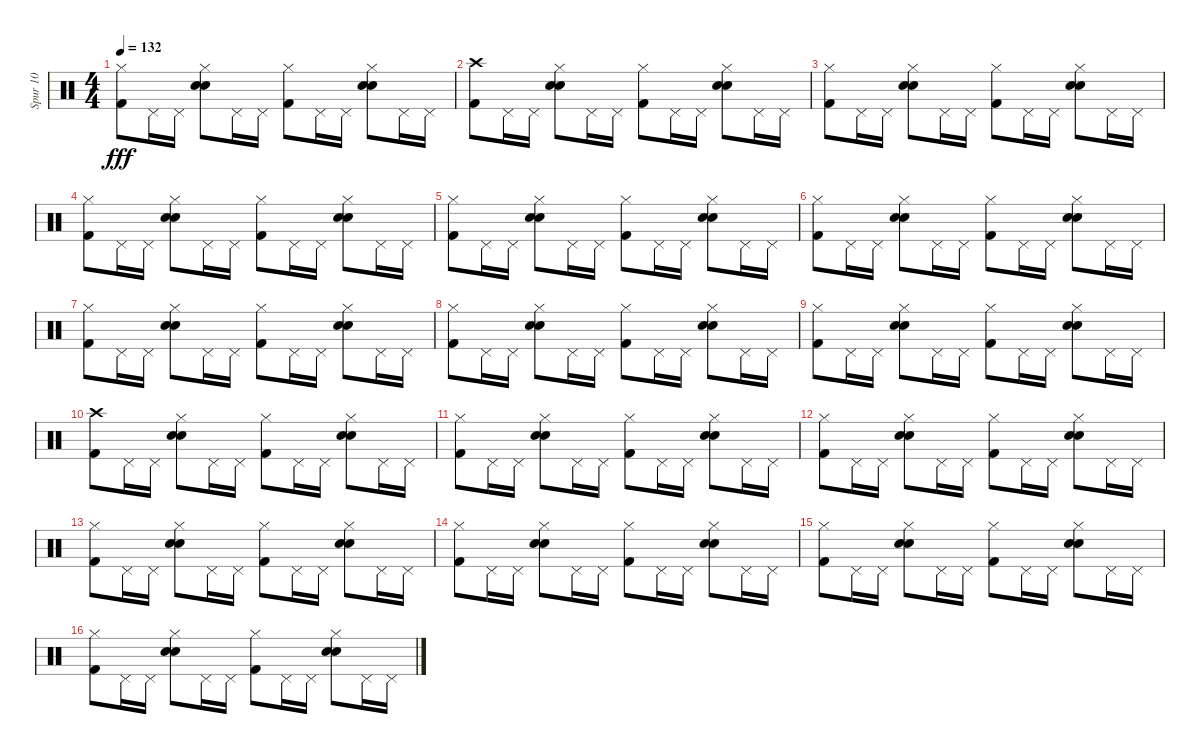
\track ("Spur 10" "Spur 10") {instrument percussion}
\staff {score}
\articulation defaults
\ts (4 4)
\tempo 132
\clef neutral
\ks c
("Kick (hit) 2" "Hi-Hat (closed)").8{dy fff} "Pedal Hi-Hat (hit)".16 "Pedal Hi-Hat (hit)".16 ("Electric Snare (hit)" "Hi-Hat (closed)" "Hand Clap (hit)").8 "Pedal Hi-Hat (hit)".16 "Pedal Hi-Hat (hit)".16 ("Kick (hit) 2" "Hi-Hat (closed)").8 "Pedal Hi-Hat (hit)".16 "Pedal Hi-Hat (hit)".16 ("Electric Snare (hit)" "Hi-Hat (closed)" "Hand Clap (hit)").8 "Pedal Hi-Hat (hit)".16 "Pedal Hi-Hat (hit)".16 |
("Crash high (hit)" "Kick (hit) 2").8 "Pedal Hi-Hat (hit)".16 "Pedal Hi-Hat (hit)".16 ("Electric Snare (hit)" "Hi-Hat (closed)" "Hand Clap (hit)").8 "Pedal Hi-Hat (hit)".16 "Pedal Hi-Hat (hit)".16 ("Kick (hit) 2" "Hi-Hat (closed)").8 "Pedal Hi-Hat (hit)".16 "Pedal Hi-Hat (hit)".16 ("Electric Snare (hit)" "Hi-Hat (closed)" "Hand Clap (hit)").8 "Pedal Hi-Hat (hit)".16 "Pedal Hi-Hat (hit)".16 |
("Kick (hit) 2" "Hi-Hat (closed)").8 "Pedal Hi-Hat (hit)".16 "Pedal Hi-Hat (hit)".16 ("Electric Snare (hit)" "Hi-Hat (closed)" "Hand Clap (hit)").8 "Pedal Hi-Hat (hit)".16 "Pedal Hi-Hat (hit)".16 ("Kick (hit) 2" "Hi-Hat (closed)").8 "Pedal Hi-Hat (hit)".16 "Pedal Hi-Hat (hit)".16 ("Electric Snare (hit)" "Hi-Hat (closed)" "Hand Clap (hit)").8 "Pedal Hi-Hat (hit)".16 "Pedal Hi-Hat (hit)".16 |
("Kick (hit) 2" "Hi-Hat (closed)").8 "Pedal Hi-Hat (hit)".16 "Pedal Hi-Hat (hit)".16 ("Electric Snare (hit)" "Hi-Hat (closed)" "Hand Clap (hit)").8 "Pedal Hi-Hat (hit)".16 "Pedal Hi-Hat (hit)".16 ("Kick (hit) 2" "Hi-Hat (closed)").8 "Pedal Hi-Hat (hit)".16 "Pedal Hi-Hat (hit)".16 ("Electric Snare (hit)" "Hi-Hat (closed)" "Hand Clap (hit)").8 "Pedal Hi-Hat (hit)".16 "Pedal Hi-Hat (hit)".16 |
("Kick (hit) 2" "Hi-Hat (closed)").8 "Pedal Hi-Hat (hit)".16 "Pedal Hi-Hat (hit)".16 ("Electric Snare (hit)" "Hi-Hat (closed)" "Hand Clap (hit)").8 "Pedal Hi-Hat (hit)".16 "Pedal Hi-Hat (hit)".16 ("Kick (hit) 2" "Hi-Hat (closed)").8 "Pedal Hi-Hat (hit)".16 "Pedal Hi-Hat (hit)".16 ("Electric Snare (hit)" "Hi-Hat (closed)" "Hand Clap (hit)").8 "Pedal Hi-Hat (hit)".16 "Pedal Hi-Hat (hit)".16 |
("Kick (hit) 2" "Hi-Hat (closed)").8 "Pedal Hi-Hat (hit)".16 "Pedal Hi-Hat (hit)".16 ("Electric Snare (hit)" "Hi-Hat (closed)" "Hand Clap (hit)").8 "Pedal Hi-Hat (hit)".16 "Pedal Hi-Hat (hit)".16 ("Kick (hit) 2" "Hi-Hat (closed)").8 "Pedal Hi-Hat (hit)".16 "Pedal Hi-Hat (hit)".16 ("Electric Snare (hit)" "Hi-Hat (closed)" "Hand Clap (hit)").8 "Pedal Hi-Hat (hit)".16 "Pedal Hi-Hat (hit)".16 |
("Kick (hit) 2" "Hi-Hat (closed)").8 "Pedal Hi-Hat (hit)".16 "Pedal Hi-Hat (hit)".16 ("Electric Snare (hit)" "Hi-Hat (closed)" "Hand Clap (hit)").8 "Pedal Hi-Hat (hit)".16 "Pedal Hi-Hat (hit)".16 ("Kick (hit) 2" "Hi-Hat (closed)").8 "Pedal Hi-Hat (hit)".16 "Pedal Hi-Hat (hit)".16 ("Electric Snare (hit)" "Hi-Hat (closed)" "Hand Clap (hit)").8 "Pedal Hi-Hat (hit)".16 "Pedal Hi-Hat (hit)".16 |
("Kick (hit) 2" "Hi-Hat (closed)").8 "Pedal Hi-Hat (hit)".16 "Pedal Hi-Hat (hit)".16 ("Electric Snare (hit)" "Hi-Hat (closed)" "Hand Clap (hit)").8 "Pedal Hi-Hat (hit)".16 "Pedal Hi-Hat (hit)".16 ("Kick (hit) 2" "Hi-Hat (closed)").8 "Pedal Hi-Hat (hit)".16 "Pedal Hi-Hat (hit)".16 ("Electric Snare (hit)" "Hi-Hat (closed)" "Hand Clap (hit)").8 "Pedal Hi-Hat (hit)".16 "Pedal Hi-Hat (hit)".16 |
("Kick (hit) 2" "Hi-Hat (closed)").8 "Pedal Hi-Hat (hit)".16 "Pedal Hi-Hat (hit)".16 ("Electric Snare (hit)" "Hi-Hat (closed)" "Hand Clap (hit)").8 "Pedal Hi-Hat (hit)".16 "Pedal Hi-Hat (hit)".16 ("Kick (hit) 2" "Hi-Hat (closed)").8 "Pedal Hi-Hat (hit)".16 "Pedal Hi-Hat (hit)".16 ("Electric Snare (hit)" "Hi-Hat (closed)" "Hand Clap (hit)").8 "Pedal Hi-Hat (hit)".16 "Pedal Hi-Hat (hit)".16 |
("Crash high (hit)" "Kick (hit) 2").8 "Pedal Hi-Hat (hit)".16 "Pedal Hi-Hat (hit)".16 ("Electric Snare (hit)" "Hi-Hat (closed)" "Hand Clap (hit)").8 "Pedal Hi-Hat (hit)".16 "Pedal Hi-Hat (hit)".16 ("Kick (hit) 2" "Hi-Hat (closed)").8 "Pedal Hi-Hat (hit)".16 "Pedal Hi-Hat (hit)".16 ("Electric Snare (hit)" "Hi-Hat (closed)" "Hand Clap (hit)").8 "Pedal Hi-Hat (hit)".16 "Pedal Hi-Hat (hit)".16 |
("Kick (hit) 2" "Hi-Hat (closed)").8 "Pedal Hi-Hat (hit)".16 "Pedal Hi-Hat (hit)".16 ("Electric Snare (hit)" "Hi-Hat (closed)" "Hand Clap (hit)").8 "Pedal Hi-Hat (hit)".16 "Pedal Hi-Hat (hit)".16 ("Kick (hit) 2" "Hi-Hat (closed)").8 "Pedal Hi-Hat (hit)".16 "Pedal Hi-Hat (hit)".16 ("Electric Snare (hit)" "Hi-Hat (closed)" "Hand Clap (hit)").8 "Pedal Hi-Hat (hit)".16 "Pedal Hi-Hat (hit)".16 |
("Kick (hit) 2" "Hi-Hat (closed)").8 "Pedal Hi-Hat (hit)".16 "Pedal Hi-Hat (hit)".16 ("Electric Snare (hit)" "Hi-Hat (closed)" "Hand Clap (hit)").8 "Pedal Hi-Hat (hit)".16 "Pedal Hi-Hat (hit)".16 ("Kick (hit) 2" "Hi-Hat (closed)").8 "Pedal Hi-Hat (hit)".16 "Pedal Hi-Hat (hit)".16 ("Electric Snare (hit)" "Hi-Hat (closed)" "Hand Clap (hit)").8 "Pedal Hi-Hat (hit)".16 "Pedal Hi-Hat (hit)".16 |
("Kick (hit) 2" "Hi-Hat (closed)").8 "Pedal Hi-Hat (hit)".16 "Pedal Hi-Hat (hit)".16 ("Electric Snare (hit)" "Hi-Hat (closed)" "Hand Clap (hit)").8 "Pedal Hi-Hat (hit)".16 "Pedal Hi-Hat (hit)".16 ("Kick (hit) 2" "Hi-Hat (closed)").8 "Pedal Hi-Hat (hit)".16 "Pedal Hi-Hat (hit)".16 ("Electric Snare (hit)" "Hi-Hat (closed)" "Hand Clap (hit)").8 "Pedal Hi-Hat (hit)".16 "Pedal Hi-Hat (hit)".16 |
("Kick (hit) 2" "Hi-Hat (closed)").8 "Pedal Hi-Hat (hit)".16 "Pedal Hi-Hat (hit)".16 ("Electric Snare (hit)" "Hi-Hat (closed)" "Hand Clap (hit)").8 "Pedal Hi-Hat (hit)".16 "Pedal Hi-Hat (hit)".16 ("Kick (hit) 2" "Hi-Hat (closed)").8 "Pedal Hi-Hat (hit)".16 "Pedal Hi-Hat (hit)".16 ("Electric Snare (hit)" "Hi-Hat (closed)" "Hand Clap (hit)").8 "Pedal Hi-Hat (hit)".16 "Pedal Hi-Hat (hit)".16 |
("Kick (hit) 2" "Hi-Hat (closed)").8 "Pedal Hi-Hat (hit)".16 "Pedal Hi-Hat (hit)".16 ("Electric Snare (hit)" "Hi-Hat (closed)" "Hand Clap (hit)").8 "Pedal Hi-Hat (hit)".16 "Pedal Hi-Hat (hit)".16 ("Kick (hit) 2" "Hi-Hat (closed)").8 "Pedal Hi-Hat (hit)".16 "Pedal Hi-Hat (hit)".16 ("Electric Snare (hit)" "Hi-Hat (closed)" "Hand Clap (hit)").8 "Pedal Hi-Hat (hit)".16 "Pedal Hi-Hat (hit)".16 |
("Kick (hit) 2" "Hi-Hat (closed)").8 "Pedal Hi-Hat (hit)".16 "Pedal Hi-Hat (hit)".16 ("Electric Snare (hit)" "Hi-Hat (closed)" "Hand Clap (hit)").8 "Pedal Hi-Hat (hit)".16 "Pedal Hi-Hat (hit)".16 ("Kick (hit) 2" "Hi-Hat (closed)").8 "Pedal Hi-Hat (hit)".16 "Pedal Hi-Hat (hit)".16 ("Electric Snare (hit)" "Hi-Hat (closed)" "Hand Clap (hit)").8 "Pedal Hi-Hat (hit)".16 "Pedal Hi-Hat (hit)".16
